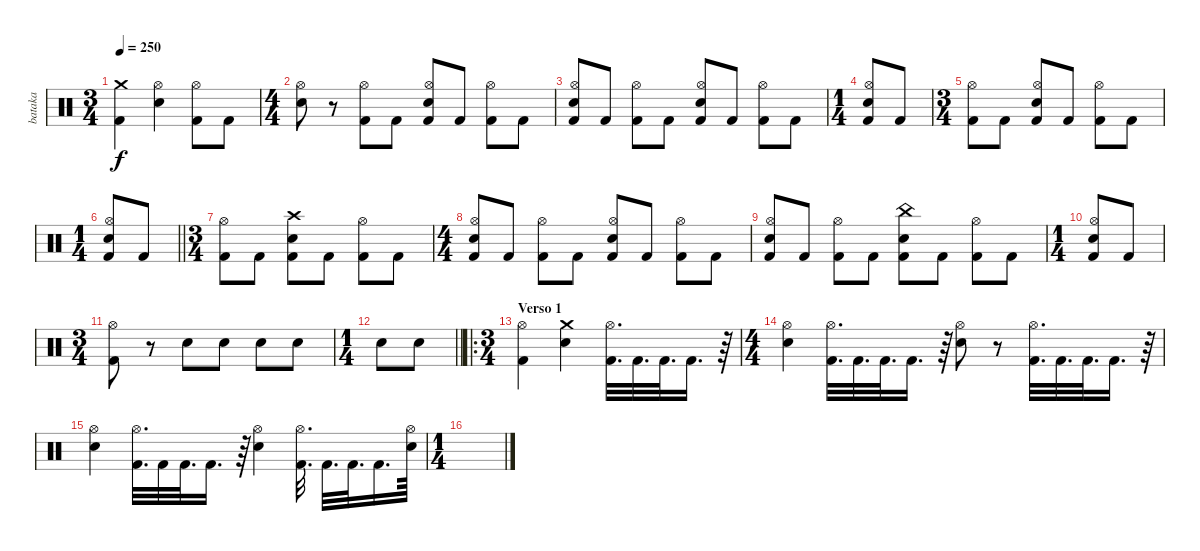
\track ("bataka" "bataka") {instrument percussion}
\staff {score}
\articulation defaults
\ts (3 4)
\tempo 250
\clef neutral
\ks c
("Crash medium (hit)" "Kick (hit) 2").4{dy f} ("Hi-Hat (open)" "Electric Snare (hit)").4 ("Hi-Hat (open)" "Kick (hit) 2").8 "Kick (hit) 2".8 |
\ts (4 4)
("Hi-Hat (open)" "Electric Snare (hit)").8 r.8 ("Hi-Hat (open)" "Kick (hit) 2").8 "Kick (hit) 2".8 ("Hi-Hat (open)" "Electric Snare (hit)" "Kick (hit) 2").8 "Kick (hit) 2".8 ("Hi-Hat (open)" "Kick (hit) 2").8 "Kick (hit) 2".8 |
("Hi-Hat (open)" "Electric Snare (hit)" "Kick (hit) 2").8 "Kick (hit) 2".8 ("Hi-Hat (open)" "Kick (hit) 2").8 "Kick (hit) 2".8 ("Hi-Hat (open)" "Electric Snare (hit)" "Kick (hit) 2").8 "Kick (hit) 2".8 ("Hi-Hat (open)" "Kick (hit) 2").8 "Kick (hit) 2".8 |
\ts (1 4)
("Hi-Hat (open)" "Electric Snare (hit)" "Kick (hit) 2").8 "Kick (hit) 2".8 |
\ts (3 4)
("Hi-Hat (open)" "Kick (hit) 2").8 "Kick (hit) 2".8 ("Hi-Hat (open)" "Electric Snare (hit)" "Kick (hit) 2").8 "Kick (hit) 2".8 ("Hi-Hat (open)" "Kick (hit) 2").8 "Kick (hit) 2".8 |
\ts (1 4)
\barLineRight lightlight
("Hi-Hat (open)" "Electric Snare (hit)" "Kick (hit) 2").8 "Kick (hit) 2".8 |
\ts (3 4)
("Hi-Hat (open)" "Kick (hit) 2").8 "Kick (hit) 2".8 ("Crash high (hit)" "Electric Snare (hit)" "Kick (hit) 2").8 "Kick (hit) 2".8 ("Hi-Hat (open)" "Kick (hit) 2").8 "Kick (hit) 2".8 |
\ts (4 4)
("Hi-Hat (open)" "Electric Snare (hit)" "Kick (hit) 2").8 "Kick (hit) 2".8 ("Hi-Hat (open)" "Kick (hit) 2").8 "Kick (hit) 2".8 ("Hi-Hat (open)" "Electric Snare (hit)" "Kick (hit) 2").8 "Kick (hit) 2".8 ("Hi-Hat (open)" "Kick (hit) 2").8 "Kick (hit) 2".8 |
("Hi-Hat (open)" "Electric Snare (hit)" "Kick (hit) 2").8 "Kick (hit) 2".8 ("Hi-Hat (open)" "Kick (hit) 2").8 "Kick (hit) 2".8 ("China (hit)" "Electric Snare (hit)" "Kick (hit) 2").8 "Kick (hit) 2".8 ("Hi-Hat (open)" "Kick (hit) 2").8 "Kick (hit) 2".8 |
\ts (1 4)
("Hi-Hat (open)" "Electric Snare (hit)" "Kick (hit) 2").8 "Kick (hit) 2".8 |
\ts (3 4)
("Hi-Hat (open)" "Kick (hit) 2").8 r.8 "Electric Snare (hit)".8 "Electric Snare (hit)".8 "Electric Snare (hit)".8 "Electric Snare (hit)".8 |
\ts (1 4)
\barLineRight lightlight "Electric Snare (hit)".8 "Electric Snare (hit)".8
|
\ro
\ts (3 4)
\section ("" "Verso 1")
("Hi-Hat (open)" "Kick (hit) 2").4 ("Crash medium (hit)" "Electric Snare (hit)").4 ("Hi-Hat (open)" "Kick (hit) 2").32{d} "Kick (hit) 2".32{d} "Kick (hit) 2".32{d} "Kick (hit) 2".16{d} r.64 |
\ts (4 4)
("Hi-Hat (open)" "Electric Snare (hit)").4 ("Hi-Hat (open)" "Kick (hit) 2").32{d} "Kick (hit) 2".32{d} "Kick (hit) 2".32{d} "Kick (hit) 2".16{d} r.64 ("Hi-Hat (open)" "Electric Snare (hit)").8 r.8 ("Hi-Hat (open)" "Kick (hit) 2").32{d} "Kick (hit) 2".32{d} "Kick (hit) 2".32{d} "Kick (hit) 2".16{d} r.64 |
("Hi-Hat (open)" "Electric Snare (hit)").4 ("Hi-Hat (open)" "Kick (hit) 2").32{d} "Kick (hit) 2".32 "Kick (hit) 2".32{d} "Kick (hit) 2".16{d} r.64 ("Hi-Hat (open)" "Electric Snare (hit)").4 ("Hi-Hat (open)" "Kick (hit) 2").32{d} "Kick (hit) 2".32{d} "Kick (hit) 2".32{d} "Kick (hit) 2".16{d} ("Hi-Hat (open)" "Electric Snare (hit)").64 |
\ts (1 4)
